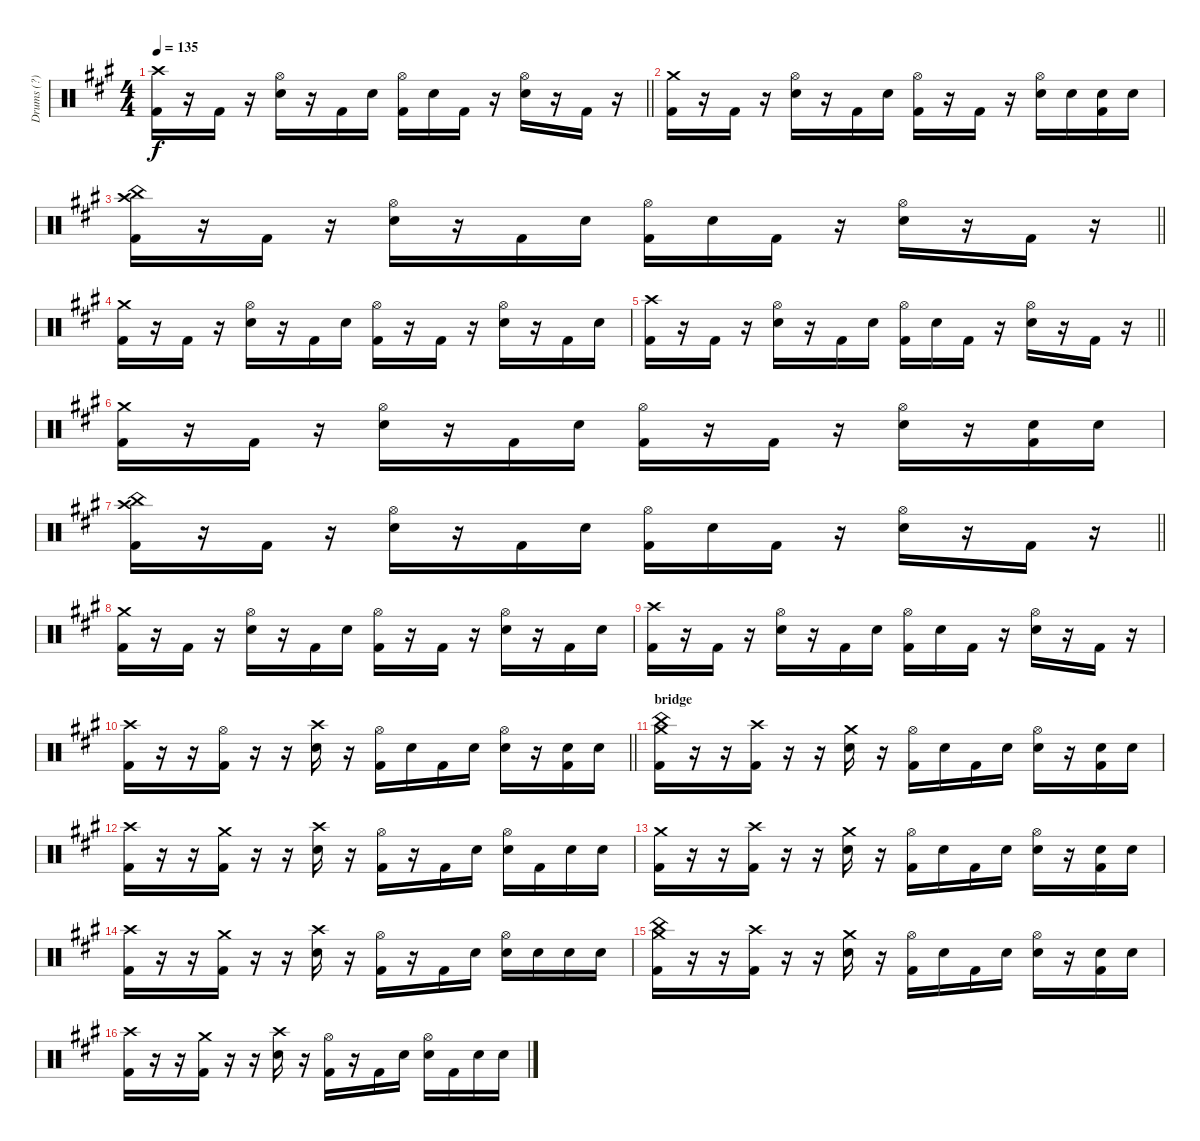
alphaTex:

\track ("Drums (?)" "Drums (?)") {instrument percussion}
\staff {score}
\articulation defaults
\ts (4 4)
\tempo 135
\clef neutral
\barLineRight lightlight
\ks a
("Crash high (hit)" "Kick (hit) 2").16{dy f} r.16 "Kick (hit) 2".16 r.16 ("Hi-Hat (open)" "Electric Snare (hit)").16 r.16 "Kick (hit) 2".16 "Electric Snare (hit)".16 ("Hi-Hat (open)" "Kick (hit) 2").16 "Electric Snare (hit)".16 "Kick (hit) 2".16 r.16 ("Hi-Hat (open)" "Electric Snare (hit)").16 r.16 "Kick (hit) 2".16 r.16 |
("Crash medium (hit)" "Kick (hit) 2").16 r.16 "Kick (hit) 2".16 r.16 ("Hi-Hat (open)" "Electric Snare (hit)").16 r.16 "Kick (hit) 2".16 "Electric Snare (hit)".16 ("Hi-Hat (open)" "Kick (hit) 2").16 r.16 "Kick (hit) 2".16 r.16 ("Hi-Hat (open)" "Electric Snare (hit)").16 "Electric Snare (hit)".16 ("Electric Snare (hit)" "Kick (hit) 2").16 "Electric Snare (hit)".16 |
\barLineRight lightlight
("Crash high (hit)" "China (hit)" "Kick (hit) 2").16 r.16 "Kick (hit) 2".16 r.16 ("Hi-Hat (open)" "Electric Snare (hit)").16 r.16 "Kick (hit) 2".16 "Electric Snare (hit)".16 ("Hi-Hat (open)" "Kick (hit) 2").16 "Electric Snare (hit)".16 "Kick (hit) 2".16 r.16 ("Hi-Hat (open)" "Electric Snare (hit)").16 r.16 "Kick (hit) 2".16 r.16 |
("Crash medium (hit)" "Kick (hit) 2").16 r.16 "Kick (hit) 2".16 r.16 ("Hi-Hat (open)" "Electric Snare (hit)").16 r.16 "Kick (hit) 2".16 "Electric Snare (hit)".16 ("Hi-Hat (open)" "Kick (hit) 2").16 r.16 "Kick (hit) 2".16 r.16 ("Hi-Hat (open)" "Electric Snare (hit)").16 r.16 "Kick (hit) 2".16 "Electric Snare (hit)".16 |
\barLineRight lightlight
("Crash high (hit)" "Kick (hit) 2").16 r.16 "Kick (hit) 2".16 r.16 ("Hi-Hat (open)" "Electric Snare (hit)").16 r.16 "Kick (hit) 2".16 "Electric Snare (hit)".16 ("Hi-Hat (open)" "Kick (hit) 2").16 "Electric Snare (hit)".16 "Kick (hit) 2".16 r.16 ("Hi-Hat (open)" "Electric Snare (hit)").16 r.16 "Kick (hit) 2".16 r.16 |
("Crash medium (hit)" "Kick (hit) 2").16 r.16 "Kick (hit) 2".16 r.16 ("Hi-Hat (open)" "Electric Snare (hit)").16 r.16 "Kick (hit) 2".16 "Electric Snare (hit)".16 ("Hi-Hat (open)" "Kick (hit) 2").16 r.16 "Kick (hit) 2".16 r.16 ("Hi-Hat (open)" "Electric Snare (hit)").16 r.16 ("Electric Snare (hit)" "Kick (hit) 2").16 "Electric Snare (hit)".16 |
\barLineRight lightlight
("Crash high (hit)" "China (hit)" "Kick (hit) 2").16 r.16 "Kick (hit) 2".16 r.16 ("Hi-Hat (open)" "Electric Snare (hit)").16 r.16 "Kick (hit) 2".16 "Electric Snare (hit)".16 ("Hi-Hat (open)" "Kick (hit) 2").16 "Electric Snare (hit)".16 "Kick (hit) 2".16 r.16 ("Hi-Hat (open)" "Electric Snare (hit)").16 r.16 "Kick (hit) 2".16 r.16 |
("Crash medium (hit)" "Kick (hit) 2").16 r.16 "Kick (hit) 2".16 r.16 ("Hi-Hat (open)" "Electric Snare (hit)").16 r.16 "Kick (hit) 2".16 "Electric Snare (hit)".16 ("Hi-Hat (open)" "Kick (hit) 2").16 r.16 "Kick (hit) 2".16 r.16 ("Hi-Hat (open)" "Electric Snare (hit)").16 r.16 "Kick (hit) 2".16 "Electric Snare (hit)".16 |
("Crash high (hit)" "Kick (hit) 2").16 r.16 "Kick (hit) 2".16 r.16 ("Hi-Hat (open)" "Electric Snare (hit)").16 r.16 "Kick (hit) 2".16 "Electric Snare (hit)".16 ("Hi-Hat (open)" "Kick (hit) 2").16 "Electric Snare (hit)".16 "Kick (hit) 2".16 r.16 ("Hi-Hat (open)" "Electric Snare (hit)").16 r.16 "Kick (hit) 2".16 r.16 |
\barLineRight lightlight
("Crash high (hit)" "Kick (hit) 2").16 r.16 r.16 ("Hi-Hat (open)" "Kick (hit) 2").16 r.16 r.16 ("Crash high (hit)" "Electric Snare (hit)").16 r.16 ("Hi-Hat (open)" "Kick (hit) 2").16 "Electric Snare (hit)".16 "Kick (hit) 2".16 "Electric Snare (hit)".16 ("Hi-Hat (open)" "Electric Snare (hit)").16 r.16 ("Electric Snare (hit)" "Kick (hit) 2").16 "Electric Snare (hit)".16 |
\section ("" "bridge")
("Crash medium (hit)" "China (hit)" "Kick (hit) 2").16 r.16 r.16 ("Crash high (hit)" "Kick (hit) 2").16 r.16 r.16 ("Crash medium (hit)" "Electric Snare (hit)").16 r.16 ("Hi-Hat (open)" "Kick (hit) 2").16 "Electric Snare (hit)".16 "Kick (hit) 2".16 "Electric Snare (hit)".16 ("Hi-Hat (open)" "Electric Snare (hit)").16 r.16 ("Electric Snare (hit)" "Kick (hit) 2").16 "Electric Snare (hit)".16 |
("Crash high (hit)" "Kick (hit) 2").16 r.16 r.16 ("Crash medium (hit)" "Kick (hit) 2").16 r.16 r.16 ("Crash high (hit)" "Electric Snare (hit)").16 r.16 ("Hi-Hat (open)" "Kick (hit) 2").16 r.16 "Kick (hit) 2".16 "Electric Snare (hit)".16 ("Hi-Hat (open)" "Electric Snare (hit)").16 "Kick (hit) 2".16 "Electric Snare (hit)".16 "Electric Snare (hit)".16 |
("Crash medium (hit)" "Kick (hit) 2").16 r.16 r.16 ("Crash high (hit)" "Kick (hit) 2").16 r.16 r.16 ("Crash medium (hit)" "Electric Snare (hit)").16 r.16 ("Hi-Hat (open)" "Kick (hit) 2").16 "Electric Snare (hit)".16 "Kick (hit) 2".16 "Electric Snare (hit)".16 ("Hi-Hat (open)" "Electric Snare (hit)").16 r.16 ("Electric Snare (hit)" "Kick (hit) 2").16 "Electric Snare (hit)".16 |
("Crash high (hit)" "Kick (hit) 2").16 r.16 r.16 ("Crash medium (hit)" "Kick (hit) 2").16 r.16 r.16 ("Crash high (hit)" "Electric Snare (hit)").16 r.16 ("Hi-Hat (open)" "Kick (hit) 2").16 r.16 "Kick (hit) 2".16 "Electric Snare (hit)".16 ("Hi-Hat (open)" "Electric Snare (hit)").16 "Electric Snare (hit)".16 "Electric Snare (hit)".16 "Electric Snare (hit)".16 |
("Crash medium (hit)" "China (hit)" "Kick (hit) 2").16 r.16 r.16 ("Crash high (hit)" "Kick (hit) 2").16 r.16 r.16 ("Crash medium (hit)" "Electric Snare (hit)").16 r.16 ("Hi-Hat (open)" "Kick (hit) 2").16 "Electric Snare (hit)".16 "Kick (hit) 2".16 "Electric Snare (hit)".16 ("Hi-Hat (open)" "Electric Snare (hit)").16 r.16 ("Electric Snare (hit)" "Kick (hit) 2").16 "Electric Snare (hit)".16 |
("Crash high (hit)" "Kick (hit) 2").16 r.16 r.16 ("Crash medium (hit)" "Kick (hit) 2").16 r.16 r.16 ("Crash high (hit)" "Electric Snare (hit)").16 r.16 ("Hi-Hat (open)" "Kick (hit) 2").16 r.16 "Kick (hit) 2".16 "Electric Snare (hit)".16 ("Hi-Hat (open)" "Electric Snare (hit)").16 "Kick (hit) 2".16 "Electric Snare (hit)".16 "Electric Snare (hit)".16
